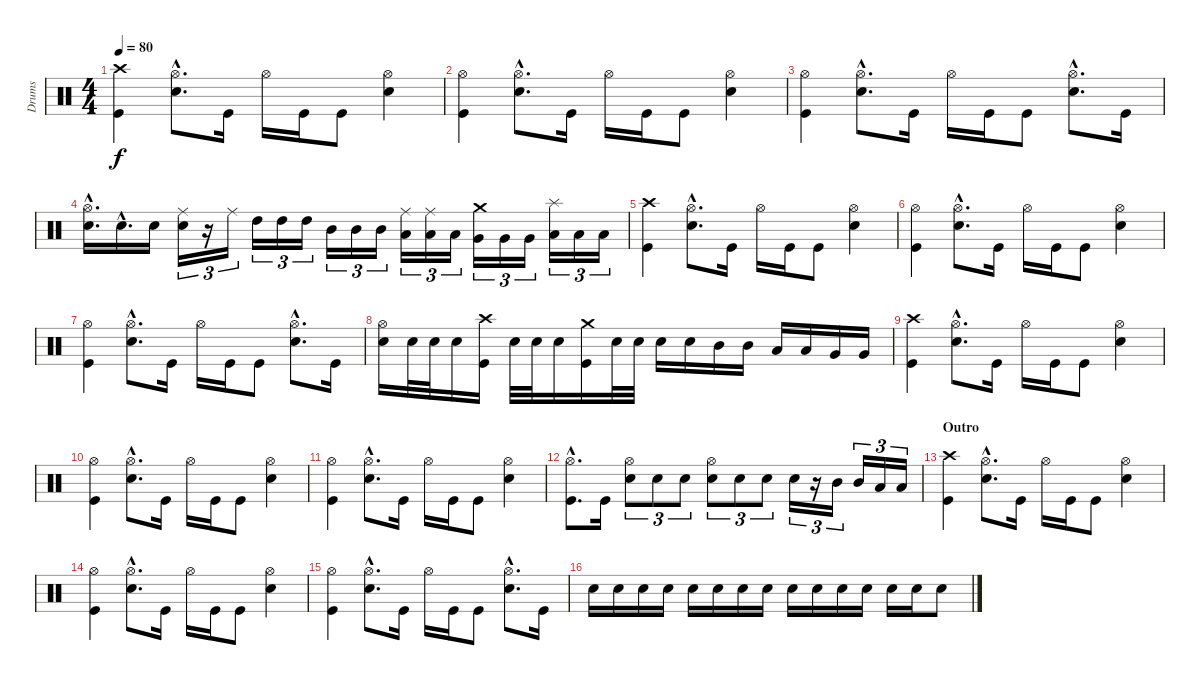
\track ("Drums" "Drums") {instrument percussion}
\staff {score}
\articulation defaults
\ts (4 4)
\tempo 80
\clef neutral
\ks c
("Crash high (hit)" "Kick (hit)").4{dy f} ("Hi-Hat (open)"{hac} "Electric Snare (hit)"{hac}).8{d} "Kick (hit)".16 "Hi-Hat (open)".16 "Kick (hit)".16 "Kick (hit)".8 ("Hi-Hat (open)" "Electric Snare (hit)").4 |
("Hi-Hat (open)" "Kick (hit)").4 ("Hi-Hat (open)"{hac} "Electric Snare (hit)"{hac}).8{d} "Kick (hit)".16 "Hi-Hat (open)".16 "Kick (hit)".16 "Kick (hit)".8 ("Hi-Hat (open)" "Electric Snare (hit)").4 |
("Hi-Hat (open)" "Kick (hit)").4 ("Hi-Hat (open)"{hac} "Electric Snare (hit)"{hac}).8{d} "Kick (hit)".16 "Hi-Hat (open)".16 "Kick (hit)".16 "Kick (hit)".8 ("Hi-Hat (open)"{hac} "Electric Snare (hit)"{hac}).8{d} "Kick (hit)".16 |
("Hi-Hat (open)"{hac} "Electric Snare (hit)"{hac}).16{d} "Electric Snare (hit)"{hac}.16{d} "Electric Snare (hit)".16 ("Ride (middle)" "Electric Snare (hit)").16{tu (3 2)} r.16{tu (3 2)} "Ride (middle)".16{tu (3 2)} "High Tom (hit)".16{tu (3 2)} "High Tom (hit)".16{tu (3 2)} "High Tom (hit)".16{tu (3 2)} "Mid Tom (hit)".16{tu (3 2)} "Mid Tom (hit)".16{tu (3 2)} "Mid Tom (hit)".16{tu (3 2)} ("Ride (middle)" "Low Tom (hit)").16{tu (3 2)} ("Ride (middle)" "Low Tom (hit)").16{tu (3 2)} "Low Tom (hit)".16{tu (3 2)} ("Crash medium (hit)" "Very Low Tom (hit)").16{tu (3 2)} "Very Low Tom (hit)".16{tu (3 2)} "Very Low Tom (hit)".16{tu (3 2)} ("Splash (hit)" "Low Floor Tom (hit)").16{tu (3 2)} "Low Floor Tom (hit)".16{tu (3 2)} "Low Floor Tom (hit)".16{tu (3 2)} |
("Crash high (hit)" "Kick (hit)").4 ("Hi-Hat (open)"{hac} "Electric Snare (hit)"{hac}).8{d} "Kick (hit)".16 "Hi-Hat (open)".16 "Kick (hit)".16 "Kick (hit)".8 ("Hi-Hat (open)" "Electric Snare (hit)").4 |
("Hi-Hat (open)" "Kick (hit)").4 ("Hi-Hat (open)"{hac} "Electric Snare (hit)"{hac}).8{d} "Kick (hit)".16 "Hi-Hat (open)".16 "Kick (hit)".16 "Kick (hit)".8 ("Hi-Hat (open)" "Electric Snare (hit)").4 |
("Hi-Hat (open)" "Kick (hit)").4 ("Hi-Hat (open)"{hac} "Electric Snare (hit)"{hac}).8{d} "Kick (hit)".16 "Hi-Hat (open)".16 "Kick (hit)".16 "Kick (hit)".8 ("Hi-Hat (open)"{hac} "Electric Snare (hit)"{hac}).8{d} "Kick (hit)".16 |
("Hi-Hat (open)" "Electric Snare (hit)").16 "Electric Snare (hit)".32 "Electric Snare (hit)".32 "Electric Snare (hit)".16 ("Crash high (hit)" "Kick (hit)").16 "Electric Snare (hit)".32 "Electric Snare (hit)".32 "Electric Snare (hit)".16 ("Crash medium (hit)" "Kick (hit)").16 "Electric Snare (hit)".32 "Electric Snare (hit)".32 "Electric Snare (hit)".16 "Electric Snare (hit)".16 "Mid Tom (hit)".16 "Mid Tom (hit)".16 "Low Tom (hit)".16 "Low Tom (hit)".16 "Very Low Tom (hit)".16 "Very Low Tom (hit)".16 |
("Crash high (hit)" "Kick (hit)").4 ("Hi-Hat (open)"{hac} "Electric Snare (hit)"{hac}).8{d} "Kick (hit)".16 "Hi-Hat (open)".16 "Kick (hit)".16 "Kick (hit)".8 ("Hi-Hat (open)" "Electric Snare (hit)").4 |
("Hi-Hat (open)" "Kick (hit)").4 ("Hi-Hat (open)"{hac} "Electric Snare (hit)"{hac}).8{d} "Kick (hit)".16 "Hi-Hat (open)".16 "Kick (hit)".16 "Kick (hit)".8 ("Hi-Hat (open)" "Electric Snare (hit)").4 |
("Hi-Hat (open)" "Kick (hit)").4 ("Hi-Hat (open)"{hac} "Electric Snare (hit)"{hac}).8{d} "Kick (hit)".16 "Hi-Hat (open)".16 "Kick (hit)".16 "Kick (hit)".8 ("Hi-Hat (open)" "Electric Snare (hit)").4 |
("Hi-Hat (open)"{hac} "Kick (hit)"{hac}).8{d} "Kick (hit)".16 ("Hi-Hat (open)" "Electric Snare (hit)").8{tu (3 2)} "Electric Snare (hit)".8{tu (3 2)} "Electric Snare (hit)".8{tu (3 2)} ("Hi-Hat (open)" "Electric Snare (hit)").8{tu (3 2)} "Electric Snare (hit)".8{tu (3 2)} "Electric Snare (hit)".8{tu (3 2)} "Electric Snare (hit)".16{tu (3 2)} r.16{tu (3 2)} "Mid Tom (hit)".16{tu (3 2)} "Mid Tom (hit)".16{tu (3 2)} "Low Tom (hit)".16{tu (3 2)} "Low Tom (hit)".16{tu (3 2)} |
\section ("" "Outro")
("Crash high (hit)" "Kick (hit)").4{volume 12} ("Hi-Hat (open)"{hac} "Electric Snare (hit)"{hac}).8{d} "Kick (hit)".16 "Hi-Hat (open)".16 "Kick (hit)".16 "Kick (hit)".8 ("Hi-Hat (open)" "Electric Snare (hit)").4 |
("Hi-Hat (open)" "Kick (hit)").4 ("Hi-Hat (open)"{hac} "Electric Snare (hit)"{hac}).8{d} "Kick (hit)".16 "Hi-Hat (open)".16 "Kick (hit)".16 "Kick (hit)".8 ("Hi-Hat (open)" "Electric Snare (hit)").4 |
("Hi-Hat (open)" "Kick (hit)").4 ("Hi-Hat (open)"{hac} "Electric Snare (hit)"{hac}).8{d} "Kick (hit)".16 "Hi-Hat (open)".16 "Kick (hit)".16 "Kick (hit)".8 ("Hi-Hat (open)"{hac} "Electric Snare (hit)"{hac}).8{d} "Kick (hit)".16 |
"Electric Snare (hit)".16 "Electric Snare (hit)".16 "Electric Snare (hit)".16 "Electric Snare (hit)".16 "Electric Snare (hit)".16 "Electric Snare (hit)".16 "Electric Snare (hit)".16 "Electric Snare (hit)".16 "Electric Snare (hit)".16 "Electric Snare (hit)".16 "Electric Snare (hit)".16 "Electric Snare (hit)".16 "Electric Snare (hit)".16 "Electric Snare (hit)".16 "Electric Snare (hit)".8
